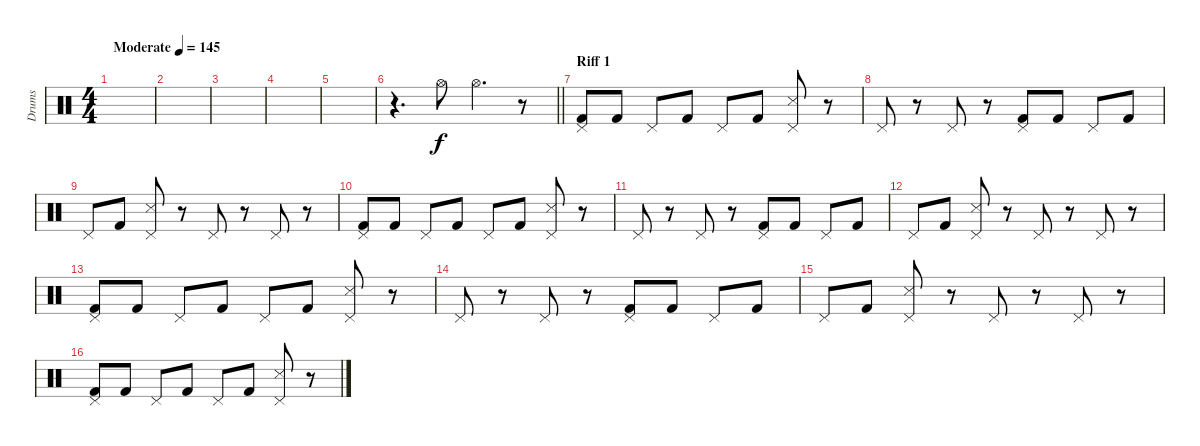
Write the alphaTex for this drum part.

\track ("Drums" "Drums") {instrument percussion}
\staff {score}
\articulation defaults
\ts (4 4)
\tempo (145 "Moderate")
\clef neutral
\ks c
|
|
|
|
|
\barLineRight lightlight
r.4{d} "Hi-Hat (open)".8 "Hi-Hat (open)".4{d} r.8 |
\section ("" "Riff 1")
("Pedal Hi-Hat (hit)" "Kick (hit) 2").8 "Kick (hit) 2".8 "Pedal Hi-Hat (hit)".8 "Kick (hit) 2".8 "Pedal Hi-Hat (hit)".8 "Kick (hit) 2".8 ("Pedal Hi-Hat (hit)" "Snare (side stick) 3").8 r.8 |
"Pedal Hi-Hat (hit)".8 r.8 "Pedal Hi-Hat (hit)".8 r.8 ("Pedal Hi-Hat (hit)" "Kick (hit) 2").8 "Kick (hit) 2".8 "Pedal Hi-Hat (hit)".8 "Kick (hit) 2".8 |
"Pedal Hi-Hat (hit)".8 "Kick (hit) 2".8 ("Pedal Hi-Hat (hit)" "Snare (side stick) 3").8 r.8 "Pedal Hi-Hat (hit)".8 r.8 "Pedal Hi-Hat (hit)".8 r.8 |
("Pedal Hi-Hat (hit)" "Kick (hit) 2").8 "Kick (hit) 2".8 "Pedal Hi-Hat (hit)".8 "Kick (hit) 2".8 "Pedal Hi-Hat (hit)".8 "Kick (hit) 2".8 ("Pedal Hi-Hat (hit)" "Snare (side stick) 3").8 r.8 |
"Pedal Hi-Hat (hit)".8 r.8 "Pedal Hi-Hat (hit)".8 r.8 ("Pedal Hi-Hat (hit)" "Kick (hit) 2").8 "Kick (hit) 2".8 "Pedal Hi-Hat (hit)".8 "Kick (hit) 2".8 |
"Pedal Hi-Hat (hit)".8 "Kick (hit) 2".8 ("Pedal Hi-Hat (hit)" "Snare (side stick) 3").8 r.8 "Pedal Hi-Hat (hit)".8 r.8 "Pedal Hi-Hat (hit)".8 r.8 |
("Pedal Hi-Hat (hit)" "Kick (hit) 2").8 "Kick (hit) 2".8 "Pedal Hi-Hat (hit)".8 "Kick (hit) 2".8 "Pedal Hi-Hat (hit)".8 "Kick (hit) 2".8 ("Pedal Hi-Hat (hit)" "Snare (side stick) 3").8 r.8 |
"Pedal Hi-Hat (hit)".8 r.8 "Pedal Hi-Hat (hit)".8 r.8 ("Pedal Hi-Hat (hit)" "Kick (hit) 2").8 "Kick (hit) 2".8 "Pedal Hi-Hat (hit)".8 "Kick (hit) 2".8 |
"Pedal Hi-Hat (hit)".8 "Kick (hit) 2".8 ("Pedal Hi-Hat (hit)" "Snare (side stick) 3").8 r.8 "Pedal Hi-Hat (hit)".8 r.8 "Pedal Hi-Hat (hit)".8 r.8 |
("Pedal Hi-Hat (hit)" "Kick (hit) 2").8 "Kick (hit) 2".8 "Pedal Hi-Hat (hit)".8 "Kick (hit) 2".8 "Pedal Hi-Hat (hit)".8 "Kick (hit) 2".8 ("Pedal Hi-Hat (hit)" "Snare (side stick) 3").8 r.8
